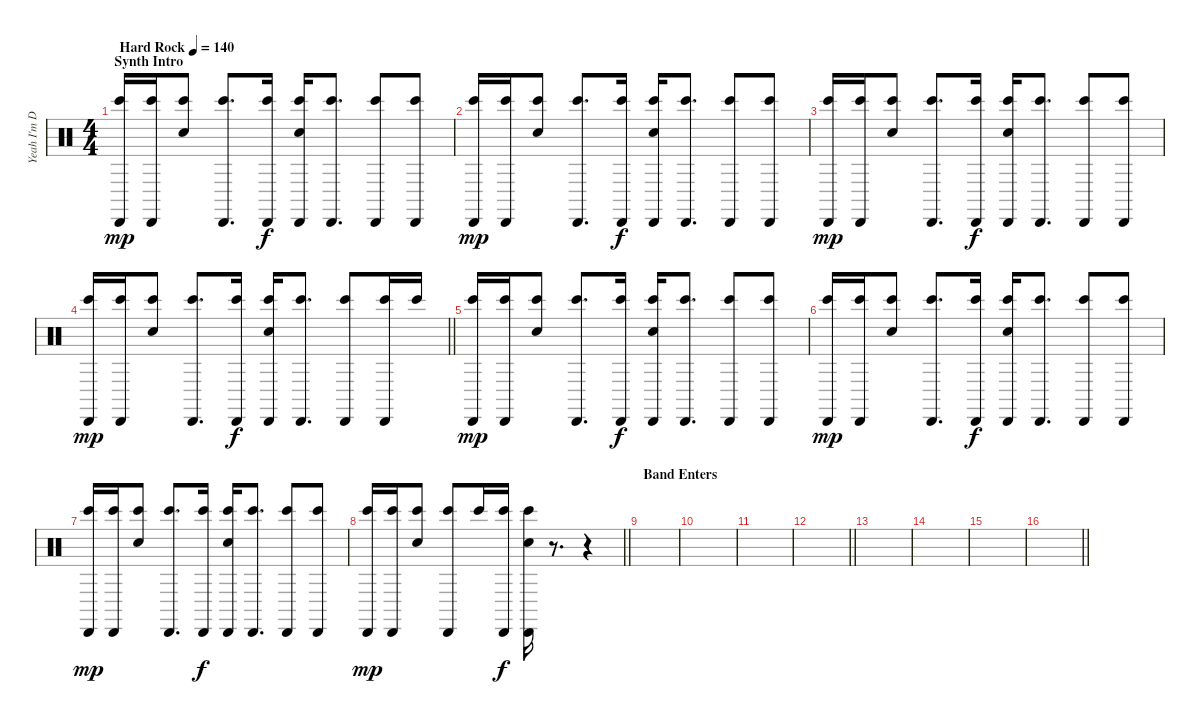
\track ("Yeah I'm Doing Too Much..." "Yeah I'm D") {instrument percussion}
\staff {score}
\articulation defaults
\ts (4 4)
\section ("" "Synth Intro")
\tempo (140 "Hard Rock")
\clef neutral
\ks c
("Bongo High (hit)" "Cabasa (hit)").16{dy mp balance 0} ("Bongo High (hit)" "Cabasa (hit)").16{balance 16} ("Bongo High (hit)" "Hand Clap (hit)").8{balance 0} ("Bongo High (hit)" "Cabasa (hit)").8{d balance 16} ("Bongo High (hit)" "Cabasa (hit)").16{dy f balance 0} ("Bongo High (hit)" "Cabasa (hit)" "Hand Clap (hit)").16{balance 16} ("Bongo High (hit)" "Cabasa (hit)").8{d balance 0} ("Bongo High (hit)" "Cabasa (hit)").8{balance 16} ("Bongo High (hit)" "Cabasa (hit)").8 |
("Bongo High (hit)" "Cabasa (hit)").16{dy mp balance 0} ("Bongo High (hit)" "Cabasa (hit)").16{balance 16} ("Bongo High (hit)" "Hand Clap (hit)").8{balance 0} ("Bongo High (hit)" "Cabasa (hit)").8{d balance 16} ("Bongo High (hit)" "Cabasa (hit)").16{dy f balance 0} ("Bongo High (hit)" "Cabasa (hit)" "Hand Clap (hit)").16{balance 16} ("Bongo High (hit)" "Cabasa (hit)").8{d balance 0} ("Bongo High (hit)" "Cabasa (hit)").8{balance 16} ("Bongo High (hit)" "Cabasa (hit)").8 |
("Bongo High (hit)" "Cabasa (hit)").16{dy mp balance 0} ("Bongo High (hit)" "Cabasa (hit)").16{balance 16} ("Bongo High (hit)" "Hand Clap (hit)").8{balance 0} ("Bongo High (hit)" "Cabasa (hit)").8{d balance 16} ("Bongo High (hit)" "Cabasa (hit)").16{dy f balance 0} ("Bongo High (hit)" "Cabasa (hit)" "Hand Clap (hit)").16{balance 16} ("Bongo High (hit)" "Cabasa (hit)").8{d balance 0} ("Bongo High (hit)" "Cabasa (hit)").8{balance 16} ("Bongo High (hit)" "Cabasa (hit)").8 |
\barLineRight lightlight
("Bongo High (hit)" "Cabasa (hit)").16{dy mp balance 0} ("Bongo High (hit)" "Cabasa (hit)").16{balance 16} ("Bongo High (hit)" "Hand Clap (hit)").8{balance 0} ("Bongo High (hit)" "Cabasa (hit)").8{d balance 16} ("Bongo High (hit)" "Cabasa (hit)").16{dy f balance 0} ("Bongo High (hit)" "Cabasa (hit)" "Hand Clap (hit)").16{balance 16} ("Bongo High (hit)" "Cabasa (hit)").8{d balance 0} ("Bongo High (hit)" "Cabasa (hit)").8{balance 16} ("Bongo High (hit)" "Cabasa (hit)").16 "Bongo High (hit)".16 |
("Bongo High (hit)" "Cabasa (hit)").16{dy mp balance 0} ("Bongo High (hit)" "Cabasa (hit)").16{balance 16} ("Bongo High (hit)" "Hand Clap (hit)").8{balance 0} ("Bongo High (hit)" "Cabasa (hit)").8{d balance 16} ("Bongo High (hit)" "Cabasa (hit)").16{dy f balance 0} ("Bongo High (hit)" "Cabasa (hit)" "Hand Clap (hit)").16{balance 16} ("Bongo High (hit)" "Cabasa (hit)").8{d balance 0} ("Bongo High (hit)" "Cabasa (hit)").8{balance 16} ("Bongo High (hit)" "Cabasa (hit)").8 |
("Bongo High (hit)" "Cabasa (hit)").16{dy mp balance 0} ("Bongo High (hit)" "Cabasa (hit)").16{balance 16} ("Bongo High (hit)" "Hand Clap (hit)").8{balance 0} ("Bongo High (hit)" "Cabasa (hit)").8{d balance 16} ("Bongo High (hit)" "Cabasa (hit)").16{dy f balance 0} ("Bongo High (hit)" "Cabasa (hit)" "Hand Clap (hit)").16{balance 16} ("Bongo High (hit)" "Cabasa (hit)").8{d balance 0} ("Bongo High (hit)" "Cabasa (hit)").8{balance 16} ("Bongo High (hit)" "Cabasa (hit)").8 |
("Bongo High (hit)" "Cabasa (hit)").16{dy mp balance 0} ("Bongo High (hit)" "Cabasa (hit)").16{balance 16} ("Bongo High (hit)" "Hand Clap (hit)").8{balance 0} ("Bongo High (hit)" "Cabasa (hit)").8{d balance 16} ("Bongo High (hit)" "Cabasa (hit)").16{dy f balance 0} ("Bongo High (hit)" "Cabasa (hit)" "Hand Clap (hit)").16{balance 16} ("Bongo High (hit)" "Cabasa (hit)").8{d balance 0} ("Bongo High (hit)" "Cabasa (hit)").8{balance 16} ("Bongo High (hit)" "Cabasa (hit)").8 |
\barLineRight lightlight
("Bongo High (hit)" "Cabasa (hit)").16{dy mp balance 0} ("Bongo High (hit)" "Cabasa (hit)").16{balance 16} ("Bongo High (hit)" "Hand Clap (hit)").8{balance 0} ("Bongo High (hit)" "Cabasa (hit)").8{balance 16} "Bongo High (hit)".16 ("Bongo High (hit)" "Cabasa (hit)").16{dy f balance 0} ("Bongo High (hit)" "Cabasa (hit)" "Hand Clap (hit)").16{balance 16} r.8{d balance 0} r.4 |
\section ("" "Band Enters")
|
|
|
\barLineRight lightlight
|
|
|
|
\barLineRight lightlight
